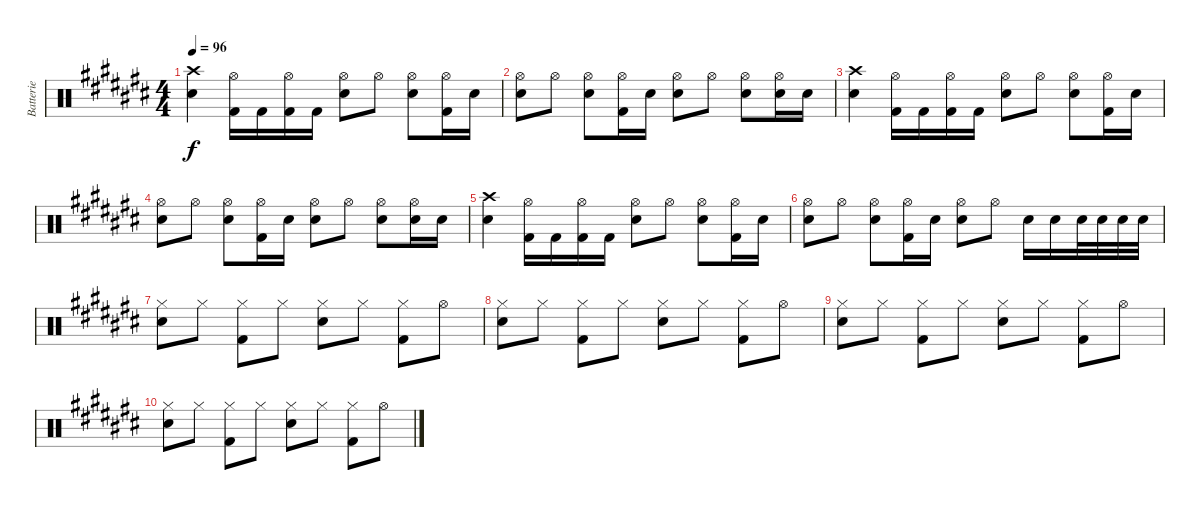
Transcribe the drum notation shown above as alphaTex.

\track ("Batterie" "Batterie") {instrument percussion}
\staff {score}
\articulation defaults
\ts (4 4)
\tempo 96
\clef neutral
\ks c#
("Crash high (hit)" "Snare (hit) 2").4{dy f} ("Hi-Hat (open)" "Kick (hit) 2").16 "Kick (hit) 2".16 ("Hi-Hat (open)" "Kick (hit) 2").16 "Kick (hit) 2".16 ("Hi-Hat (open)" "Snare (hit) 2").8 "Hi-Hat (open)".8 ("Hi-Hat (open)" "Snare (hit) 2").8 ("Hi-Hat (open)" "Kick (hit) 2").16 "Snare (hit) 2".16 |
("Hi-Hat (open)" "Snare (hit) 2").8 "Hi-Hat (open)".8 ("Hi-Hat (open)" "Snare (hit) 2").8 ("Hi-Hat (open)" "Kick (hit) 2").16 "Snare (hit) 2".16 ("Hi-Hat (open)" "Snare (hit) 2").8 "Hi-Hat (open)".8 ("Hi-Hat (open)" "Snare (hit) 2").8 ("Hi-Hat (open)" "Snare (hit) 2").16 "Snare (hit) 2".16 |
("Crash high (hit)" "Snare (hit) 2").4 ("Hi-Hat (open)" "Kick (hit) 2").16 "Kick (hit) 2".16 ("Hi-Hat (open)" "Kick (hit) 2").16 "Kick (hit) 2".16 ("Hi-Hat (open)" "Snare (hit) 2").8 "Hi-Hat (open)".8 ("Hi-Hat (open)" "Snare (hit) 2").8 ("Hi-Hat (open)" "Kick (hit) 2").16 "Snare (hit) 2".16 |
("Hi-Hat (open)" "Snare (hit) 2").8 "Hi-Hat (open)".8 ("Hi-Hat (open)" "Snare (hit) 2").8 ("Hi-Hat (open)" "Kick (hit) 2").16 "Snare (hit) 2".16 ("Hi-Hat (open)" "Snare (hit) 2").8 "Hi-Hat (open)".8 ("Hi-Hat (open)" "Snare (hit) 2").8 ("Hi-Hat (open)" "Snare (hit) 2").16 "Snare (hit) 2".16 |
("Crash high (hit)" "Snare (hit) 2").4 ("Hi-Hat (open)" "Kick (hit) 2").16 "Kick (hit) 2".16 ("Hi-Hat (open)" "Kick (hit) 2").16 "Kick (hit) 2".16 ("Hi-Hat (open)" "Snare (hit) 2").8 "Hi-Hat (open)".8 ("Hi-Hat (open)" "Snare (hit) 2").8 ("Hi-Hat (open)" "Kick (hit) 2").16 "Snare (hit) 2".16 |
("Hi-Hat (open)" "Snare (hit) 2").8 "Hi-Hat (open)".8 ("Hi-Hat (open)" "Snare (hit) 2").8 ("Hi-Hat (open)" "Kick (hit) 2").16 "Snare (hit) 2".16 ("Hi-Hat (open)" "Snare (hit) 2").8 "Hi-Hat (open)".8 "Snare (hit) 2".16 "Snare (hit) 2".16 "Snare (hit) 2".32 "Snare (hit) 2".32 "Snare (hit) 2".32 "Snare (hit) 2".32 |
("Hi-Hat (closed)" "Snare (hit) 2").8 "Hi-Hat (closed)".8 ("Hi-Hat (closed)" "Kick (hit) 2").8 "Hi-Hat (closed)".8 ("Hi-Hat (closed)" "Snare (hit) 2").8 "Hi-Hat (closed)".8 ("Hi-Hat (closed)" "Kick (hit) 2").8 "Hi-Hat (open)".8 |
("Hi-Hat (closed)" "Snare (hit) 2").8 "Hi-Hat (closed)".8 ("Hi-Hat (closed)" "Kick (hit) 2").8 "Hi-Hat (closed)".8 ("Hi-Hat (closed)" "Snare (hit) 2").8 "Hi-Hat (closed)".8 ("Hi-Hat (closed)" "Kick (hit) 2").8 "Hi-Hat (open)".8 |
("Hi-Hat (closed)" "Snare (hit) 2").8 "Hi-Hat (closed)".8 ("Hi-Hat (closed)" "Kick (hit) 2").8 "Hi-Hat (closed)".8 ("Hi-Hat (closed)" "Snare (hit) 2").8 "Hi-Hat (closed)".8 ("Hi-Hat (closed)" "Kick (hit) 2").8 "Hi-Hat (open)".8 |
("Hi-Hat (closed)" "Snare (hit) 2").8 "Hi-Hat (closed)".8 ("Hi-Hat (closed)" "Kick (hit) 2").8 "Hi-Hat (closed)".8 ("Hi-Hat (closed)" "Snare (hit) 2").8 "Hi-Hat (closed)".8 ("Hi-Hat (closed)" "Kick (hit) 2").8 "Hi-Hat (open)".8
